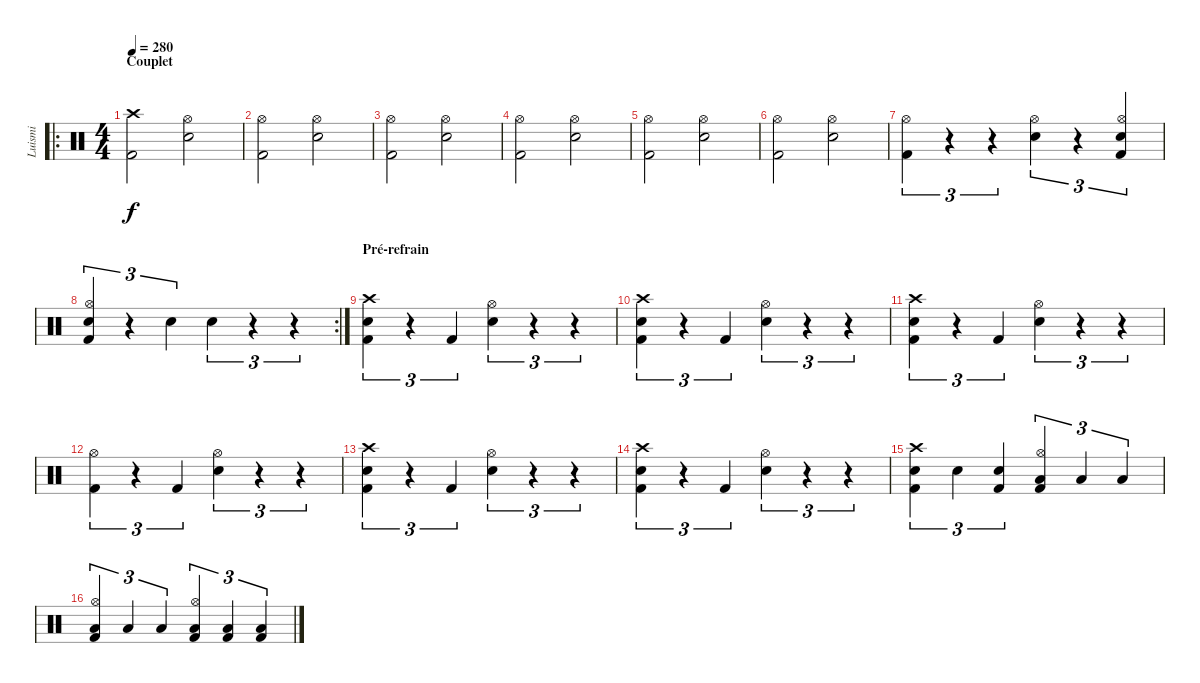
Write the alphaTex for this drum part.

\track ("Luismi" "Luismi") {instrument percussion}
\staff {score}
\articulation defaults
\ro
\ts (4 4)
\section ("" "Couplet")
\tempo 280
\clef neutral
\ks c
("Crash high (hit)" "Kick (hit) 2").2{dy f} ("Hi-Hat (open)" "Snare (hit) 2").2 |
("Hi-Hat (open)" "Kick (hit) 2").2 ("Hi-Hat (open)" "Snare (hit) 2").2 |
("Hi-Hat (open)" "Kick (hit) 2").2 ("Hi-Hat (open)" "Snare (hit) 2").2 |
("Hi-Hat (open)" "Kick (hit) 2").2 ("Hi-Hat (open)" "Snare (hit) 2").2 |
("Hi-Hat (open)" "Kick (hit) 2").2 ("Hi-Hat (open)" "Snare (hit) 2").2 |
("Hi-Hat (open)" "Kick (hit) 2").2 ("Hi-Hat (open)" "Snare (hit) 2").2 |
("Hi-Hat (open)" "Kick (hit) 2").4{tu (3 2)} r.4{tu (3 2)} r.4{tu (3 2)} ("Hi-Hat (open)" "Snare (hit) 2").4{tu (3 2)} r.4{tu (3 2)} ("Hi-Hat (open)" "Snare (hit) 2" "Kick (hit) 2").4{tu (3 2)} |
\rc 2
("Hi-Hat (open)" "Snare (hit) 2" "Kick (hit) 2").4{tu (3 2)} r.4{tu (3 2)} "Snare (hit) 2".4{tu (3 2)} "Snare (hit) 2".4{tu (3 2)} r.4{tu (3 2)} r.4{tu (3 2)} |
\section ("" "Pré-refrain")
("Crash high (hit)" "Snare (hit) 2" "Kick (hit) 2").4{tu (3 2)} r.4{tu (3 2)} "Kick (hit) 2".4{tu (3 2)} ("Hi-Hat (open)" "Snare (hit) 2").4{tu (3 2)} r.4{tu (3 2)} r.4{tu (3 2)} |
("Crash high (hit)" "Snare (hit) 2" "Kick (hit) 2").4{tu (3 2)} r.4{tu (3 2)} "Kick (hit) 2".4{tu (3 2)} ("Hi-Hat (open)" "Snare (hit) 2").4{tu (3 2)} r.4{tu (3 2)} r.4{tu (3 2)} |
("Crash high (hit)" "Snare (hit) 2" "Kick (hit) 2").4{tu (3 2)} r.4{tu (3 2)} "Kick (hit) 2".4{tu (3 2)} ("Hi-Hat (open)" "Snare (hit) 2").4{tu (3 2)} r.4{tu (3 2)} r.4{tu (3 2)} |
("Hi-Hat (open)" "Kick (hit) 2").4{tu (3 2)} r.4{tu (3 2)} "Kick (hit) 2".4{tu (3 2)} ("Hi-Hat (open)" "Snare (hit) 2").4{tu (3 2)} r.4{tu (3 2)} r.4{tu (3 2)} |
("Crash high (hit)" "Snare (hit) 2" "Kick (hit) 2").4{tu (3 2)} r.4{tu (3 2)} "Kick (hit) 2".4{tu (3 2)} ("Hi-Hat (open)" "Snare (hit) 2").4{tu (3 2)} r.4{tu (3 2)} r.4{tu (3 2)} |
("Crash high (hit)" "Snare (hit) 2" "Kick (hit) 2").4{tu (3 2)} r.4{tu (3 2)} "Kick (hit) 2".4{tu (3 2)} ("Hi-Hat (open)" "Snare (hit) 2").4{tu (3 2)} r.4{tu (3 2)} r.4{tu (3 2)} |
("Crash high (hit)" "Snare (hit) 2" "Kick (hit) 2").4{tu (3 2)} "Snare (hit) 2".4{tu (3 2)} ("Snare (hit) 2" "Kick (hit) 2").4{tu (3 2)} ("Hi-Hat (open)" "Low Tom (hit)" "Kick (hit) 2").4{tu (3 2)} "Low Tom (hit)".4{tu (3 2)} "Low Tom (hit)".4{tu (3 2)} |
("Hi-Hat (open)" "Low Floor Tom (hit)" "Kick (hit) 2").4{tu (3 2)} "Low Floor Tom (hit)".4{tu (3 2)} "Low Floor Tom (hit)".4{tu (3 2)} ("Hi-Hat (open)" "Low Floor Tom (hit)" "Kick (hit) 2").4{tu (3 2)} ("Low Floor Tom (hit)" "Kick (hit) 2").4{tu (3 2)} ("Low Floor Tom (hit)" "Kick (hit) 2").4{tu (3 2)}
